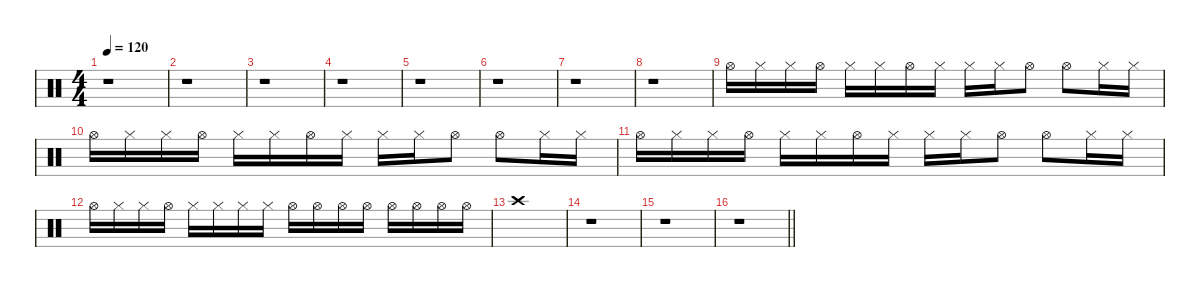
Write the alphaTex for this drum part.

\defaultSystemsLayout 4
\hideDynamics
\bracketExtendMode nobrackets
\singleTrackTrackNamePolicy hidden
\multiTrackTrackNamePolicy hidden
\firstSystemTrackNameMode fullname
\firstSystemTrackNameOrientation horizontal
\otherSystemsTrackNameOrientation horizontal
\track ("DRUMS" "drm.") {defaultSystemsLayout 4 instrument percussion}
\staff {score}
\articulation defaults
\ts (4 4)
\tempo 120
\clef neutral
\ks c
r.1{dy f beam Down} |
r.1{beam Down} |
r.1{beam Down} |
r.1{beam Down} |
r.1{beam Down} |
r.1{beam Down} |
r.1{beam Down} |
r.1{beam Down} |
"Hi-Hat (open)".16{beam Down} "Hi-Hat (closed)".16{beam Down} "Hi-Hat (closed)".16{beam Down} "Hi-Hat (open)".16{beam Down} "Hi-Hat (closed)".16{beam Down} "Hi-Hat (closed)".16{beam Down} "Hi-Hat (open)".16{beam Down} "Hi-Hat (closed)".16{beam Down} "Hi-Hat (closed)".16{beam Down} "Hi-Hat (closed)".16{beam Down} "Hi-Hat (open)".8{beam Down} "Hi-Hat (open)".8{beam Down} "Hi-Hat (closed)".16{beam Down} "Hi-Hat (closed)".16{beam Down} |
"Hi-Hat (open)".16{beam Down} "Hi-Hat (closed)".16{beam Down} "Hi-Hat (closed)".16{beam Down} "Hi-Hat (open)".16{beam Down} "Hi-Hat (closed)".16{beam Down} "Hi-Hat (closed)".16{beam Down} "Hi-Hat (open)".16{beam Down} "Hi-Hat (closed)".16{beam Down} "Hi-Hat (closed)".16{beam Down} "Hi-Hat (closed)".16{beam Down} "Hi-Hat (open)".8{beam Down} "Hi-Hat (open)".8{beam Down} "Hi-Hat (closed)".16{beam Down} "Hi-Hat (closed)".16{beam Down} |
"Hi-Hat (open)".16{beam Down} "Hi-Hat (closed)".16{beam Down} "Hi-Hat (closed)".16{beam Down} "Hi-Hat (open)".16{beam Down} "Hi-Hat (closed)".16{beam Down} "Hi-Hat (closed)".16{beam Down} "Hi-Hat (open)".16{beam Down} "Hi-Hat (closed)".16{beam Down} "Hi-Hat (closed)".16{beam Down} "Hi-Hat (closed)".16{beam Down} "Hi-Hat (open)".8{beam Down} "Hi-Hat (open)".8{beam Down} "Hi-Hat (closed)".16{beam Down} "Hi-Hat (closed)".16{beam Down} |
"Hi-Hat (open)".16{beam Down} "Hi-Hat (closed)".16{beam Down} "Hi-Hat (closed)".16{beam Down} "Hi-Hat (open)".16{beam Down} "Hi-Hat (closed)".16{beam Down} "Hi-Hat (closed)".16{beam Down} "Hi-Hat (closed)".16{beam Down} "Hi-Hat (closed)".16{beam Down} "Hi-Hat (open)".16{beam Down} "Hi-Hat (open)".16{beam Down} "Hi-Hat (open)".16{beam Down} "Hi-Hat (open)".16{beam Down} "Hi-Hat (open)".16{beam Down} "Hi-Hat (open)".16{beam Down} "Hi-Hat (open)".16{beam Down} "Hi-Hat (open)".16{beam Down} |
"Crash high (hit)".1{beam Down} |
r.1{beam Down} |
r.1{beam Down} |
\barLineRight lightlight
r.1{beam Down}
